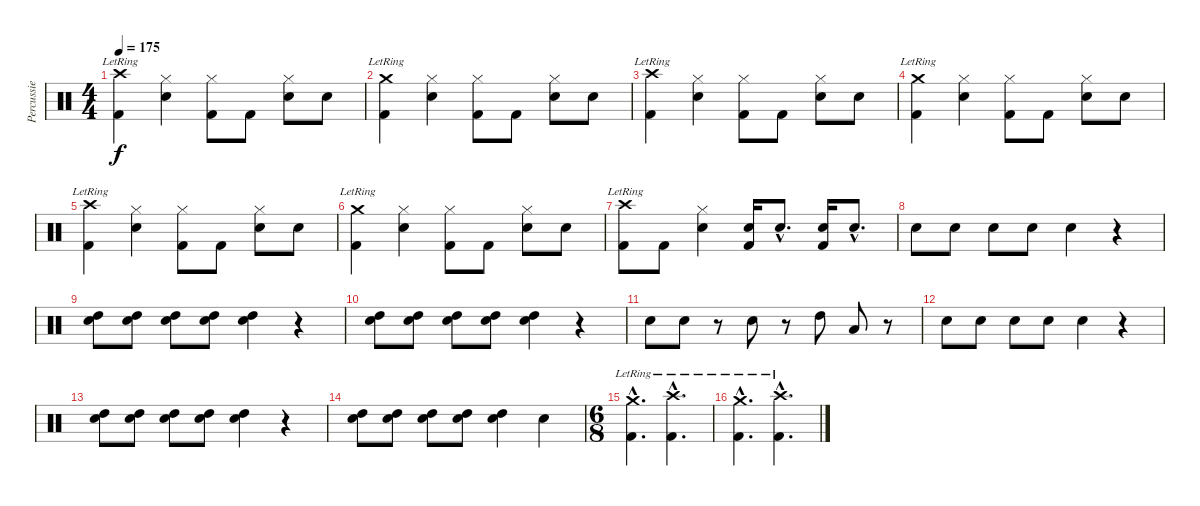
\track ("Percussie" "Percussie") {instrument percussion}
\staff {score}
\articulation defaults
\ts (4 4)
\tempo 175
\clef neutral
\ks c
("Crash high (hit)"{lr} "Kick (hit) 2").4{dy f} ("Hi-Hat (closed)" "Snare (hit) 2").4 ("Hi-Hat (closed)" "Kick (hit) 2").8 "Kick (hit) 2".8 ("Hi-Hat (closed)" "Snare (hit) 2").8 "Snare (hit) 2".8 |
("Crash medium (hit)"{lr} "Kick (hit) 2").4 ("Hi-Hat (closed)" "Snare (hit) 2").4 ("Hi-Hat (closed)" "Kick (hit) 2").8 "Kick (hit) 2".8 ("Hi-Hat (closed)" "Snare (hit) 2").8 "Snare (hit) 2".8 |
("Crash high (hit)"{lr} "Kick (hit) 2").4 ("Hi-Hat (closed)" "Snare (hit) 2").4 ("Hi-Hat (closed)" "Kick (hit) 2").8 "Kick (hit) 2".8 ("Hi-Hat (closed)" "Snare (hit) 2").8 "Snare (hit) 2".8 |
("Crash medium (hit)"{lr} "Kick (hit) 2").4 ("Hi-Hat (closed)" "Snare (hit) 2").4 ("Hi-Hat (closed)" "Kick (hit) 2").8 "Kick (hit) 2".8 ("Hi-Hat (closed)" "Snare (hit) 2").8 "Snare (hit) 2".8 |
("Crash high (hit)"{lr} "Kick (hit) 2").4 ("Hi-Hat (closed)" "Snare (hit) 2").4 ("Hi-Hat (closed)" "Kick (hit) 2").8 "Kick (hit) 2".8 ("Hi-Hat (closed)" "Snare (hit) 2").8 "Snare (hit) 2".8 |
("Crash medium (hit)"{lr} "Kick (hit) 2").4 ("Hi-Hat (closed)" "Snare (hit) 2").4 ("Hi-Hat (closed)" "Kick (hit) 2").8 "Kick (hit) 2".8 ("Hi-Hat (closed)" "Snare (hit) 2").8 "Snare (hit) 2".8 |
("Crash high (hit)"{lr} "Kick (hit) 2").8 "Kick (hit) 2".8 ("Hi-Hat (closed)" "Snare (hit) 2").4 ("Snare (hit) 2" "Kick (hit) 2").16 "Snare (hit) 2"{hac}.8{d} ("Snare (hit) 2" "Kick (hit) 2").16 "Snare (hit) 2"{hac}.8{d} |
"Snare (hit) 2".8 "Snare (hit) 2".8 "Snare (hit) 2".8 "Snare (hit) 2".8 "Snare (hit) 2".4 r.4 |
("High Tom (hit)" "Snare (hit) 2").8 ("High Tom (hit)" "Snare (hit) 2").8 ("High Tom (hit)" "Snare (hit) 2").8 ("High Tom (hit)" "Snare (hit) 2").8 ("High Tom (hit)" "Snare (hit) 2").4 r.4 |
("High Tom (hit)" "Snare (hit) 2").8 ("High Tom (hit)" "Snare (hit) 2").8 ("High Tom (hit)" "Snare (hit) 2").8 ("High Tom (hit)" "Snare (hit) 2").8 ("High Tom (hit)" "Snare (hit) 2").4 r.4 |
"Snare (hit) 2".8 "Snare (hit) 2".8 r.8 "Snare (hit) 2".8 r.8 "High Tom (hit)".8 "Low Tom (hit)".8 r.8 |
"Snare (hit) 2".8 "Snare (hit) 2".8 "Snare (hit) 2".8 "Snare (hit) 2".8 "Snare (hit) 2".4 r.4 |
("High Tom (hit)" "Snare (hit) 2").8 ("High Tom (hit)" "Snare (hit) 2").8 ("High Tom (hit)" "Snare (hit) 2").8 ("High Tom (hit)" "Snare (hit) 2").8 ("High Tom (hit)" "Snare (hit) 2").4 r.4 |
("High Tom (hit)" "Snare (hit) 2").8 ("High Tom (hit)" "Snare (hit) 2").8 ("High Tom (hit)" "Snare (hit) 2").8 ("High Tom (hit)" "Snare (hit) 2").8 ("High Tom (hit)" "Snare (hit) 2").4 "Snare (hit) 2".4 |
\ts (6 8)
("Crash medium (hit)"{hac lr} "Kick (hit) 2"{hac}).4{d} ("Crash high (hit)"{hac lr} "Kick (hit) 2"{hac}).4{d} |
("Crash medium (hit)"{hac lr} "Kick (hit) 2"{hac}).4{d} ("Crash high (hit)"{hac lr} "Kick (hit) 2"{hac}).4{d}
